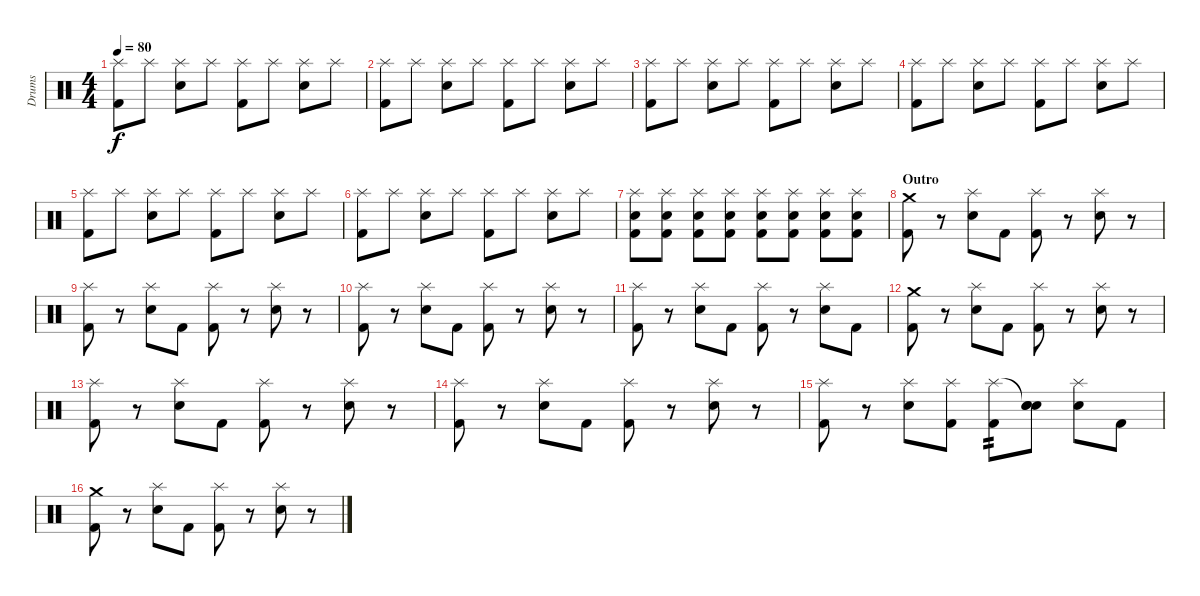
\track ("Drums" "Drums") {instrument percussion}
\staff {score}
\articulation defaults
\ts (4 4)
\tempo 80
\clef neutral
\ks c
("Splash (hit)" "Kick (hit) 2").8{dy f} "Splash (hit)".8 ("Splash (hit)" "Electric Snare (hit)").8 "Splash (hit)".8 ("Splash (hit)" "Kick (hit) 2").8 "Splash (hit)".8 ("Splash (hit)" "Electric Snare (hit)").8 "Splash (hit)".8 |
("Splash (hit)" "Kick (hit) 2").8 "Splash (hit)".8 ("Splash (hit)" "Electric Snare (hit)").8 "Splash (hit)".8 ("Splash (hit)" "Kick (hit) 2").8 "Splash (hit)".8 ("Splash (hit)" "Electric Snare (hit)").8 "Splash (hit)".8 |
("Splash (hit)" "Kick (hit) 2").8 "Splash (hit)".8 ("Splash (hit)" "Electric Snare (hit)").8 "Splash (hit)".8 ("Splash (hit)" "Kick (hit) 2").8 "Splash (hit)".8 ("Splash (hit)" "Electric Snare (hit)").8 "Splash (hit)".8 |
("Splash (hit)" "Kick (hit) 2").8 "Splash (hit)".8 ("Splash (hit)" "Electric Snare (hit)").8 "Splash (hit)".8 ("Splash (hit)" "Kick (hit) 2").8 "Splash (hit)".8 ("Splash (hit)" "Electric Snare (hit)").8 "Splash (hit)".8 |
("Splash (hit)" "Kick (hit) 2").8 "Splash (hit)".8 ("Splash (hit)" "Electric Snare (hit)").8 "Splash (hit)".8 ("Splash (hit)" "Kick (hit) 2").8 "Splash (hit)".8 ("Splash (hit)" "Electric Snare (hit)").8 "Splash (hit)".8 |
("Splash (hit)" "Kick (hit) 2").8 "Splash (hit)".8 ("Splash (hit)" "Electric Snare (hit)").8 "Splash (hit)".8 ("Splash (hit)" "Kick (hit) 2").8 "Splash (hit)".8 ("Splash (hit)" "Electric Snare (hit)").8 "Splash (hit)".8 |
("Splash (hit)" "Electric Snare (hit)" "Kick (hit) 2").8 ("Splash (hit)" "Electric Snare (hit)" "Kick (hit) 2").8 ("Splash (hit)" "Electric Snare (hit)" "Kick (hit) 2").8 ("Splash (hit)" "Electric Snare (hit)" "Kick (hit) 2").8 ("Splash (hit)" "Electric Snare (hit)" "Kick (hit) 2").8 ("Splash (hit)" "Electric Snare (hit)" "Kick (hit) 2").8 ("Splash (hit)" "Electric Snare (hit)" "Kick (hit) 2").8 ("Splash (hit)" "Electric Snare (hit)" "Kick (hit) 2").8 |
\section ("" "Outro")
("Crash medium (hit)" "Kick (hit) 2").8 r.8 ("Splash (hit)" "Electric Snare (hit)").8 "Kick (hit) 2".8 ("Splash (hit)" "Kick (hit) 2").8 r.8 ("Splash (hit)" "Electric Snare (hit)").8 r.8 |
("Splash (hit)" "Kick (hit) 2").8 r.8 ("Splash (hit)" "Electric Snare (hit)").8 "Kick (hit) 2".8 ("Splash (hit)" "Kick (hit) 2").8 r.8 ("Splash (hit)" "Electric Snare (hit)").8 r.8 |
("Splash (hit)" "Kick (hit) 2").8 r.8 ("Splash (hit)" "Electric Snare (hit)").8 "Kick (hit) 2".8 ("Splash (hit)" "Kick (hit) 2").8 r.8 ("Splash (hit)" "Electric Snare (hit)").8 r.8 |
("Splash (hit)" "Kick (hit) 2").8 r.8 ("Splash (hit)" "Electric Snare (hit)").8 "Kick (hit) 2".8 ("Splash (hit)" "Kick (hit) 2").8 r.8 ("Splash (hit)" "Electric Snare (hit)").8 "Kick (hit) 2".8 |
("Crash medium (hit)" "Kick (hit) 2").8 r.8 ("Splash (hit)" "Electric Snare (hit)").8 "Kick (hit) 2".8 ("Splash (hit)" "Kick (hit) 2").8 r.8 ("Splash (hit)" "Electric Snare (hit)").8 r.8 |
("Splash (hit)" "Kick (hit) 2").8 r.8 ("Splash (hit)" "Electric Snare (hit)").8 "Kick (hit) 2".8 ("Splash (hit)" "Kick (hit) 2").8 r.8 ("Splash (hit)" "Electric Snare (hit)").8 r.8 |
("Splash (hit)" "Kick (hit) 2").8 r.8 ("Splash (hit)" "Electric Snare (hit)").8 "Kick (hit) 2".8 ("Splash (hit)" "Kick (hit) 2").8 r.8 ("Splash (hit)" "Electric Snare (hit)").8 r.8 |
("Splash (hit)" "Kick (hit) 2").8 r.8 ("Splash (hit)" "Electric Snare (hit)").8 ("Splash (hit)" "Kick (hit) 2").8 ("Splash (hit)" "Kick (hit) 2").8{tp 2} ("Snare (hit)"{t} "Electric Snare (hit)" "Snare (hit)").8 ("Splash (hit)" "Electric Snare (hit)").8 "Kick (hit) 2".8 |
("Crash medium (hit)" "Kick (hit) 2").8 r.8 ("Splash (hit)" "Electric Snare (hit)").8 "Kick (hit) 2".8 ("Splash (hit)" "Kick (hit) 2").8 r.8 ("Splash (hit)" "Electric Snare (hit)").8 r.8
